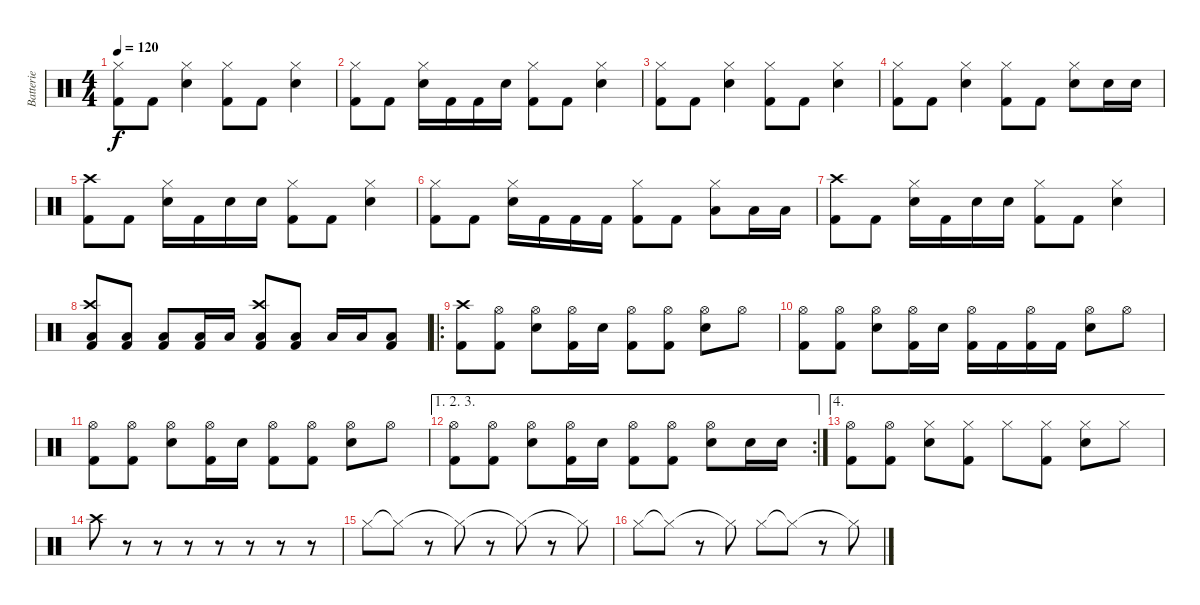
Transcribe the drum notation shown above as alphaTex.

\track ("Batterie" "Batterie") {instrument percussion}
\staff {score}
\articulation defaults
\ts (4 4)
\tempo 120
\clef neutral
\ks c
("Hi-Hat (closed)" "Kick (hit) 2").8{dy f} "Kick (hit) 2".8 ("Hi-Hat (closed)" "Snare (hit) 2").4 ("Hi-Hat (closed)" "Kick (hit) 2").8 "Kick (hit) 2".8 ("Hi-Hat (closed)" "Snare (hit) 2").4 |
("Hi-Hat (closed)" "Kick (hit) 2").8 "Kick (hit) 2".8 ("Hi-Hat (closed)" "Snare (hit) 2").16 "Kick (hit) 2".16 "Kick (hit) 2".16 "Snare (hit) 2".16 ("Hi-Hat (closed)" "Kick (hit) 2").8 "Kick (hit) 2".8 ("Hi-Hat (closed)" "Snare (hit) 2").4 |
("Hi-Hat (closed)" "Kick (hit) 2").8 "Kick (hit) 2".8 ("Hi-Hat (closed)" "Snare (hit) 2").4 ("Hi-Hat (closed)" "Kick (hit) 2").8 "Kick (hit) 2".8 ("Hi-Hat (closed)" "Snare (hit) 2").4 |
("Hi-Hat (closed)" "Kick (hit) 2").8 "Kick (hit) 2".8 ("Hi-Hat (closed)" "Snare (hit) 2").4 ("Hi-Hat (closed)" "Kick (hit) 2").8 "Kick (hit) 2".8 ("Hi-Hat (closed)" "Snare (hit) 2").8 "Snare (hit) 2".16 "Snare (hit) 2".16 |
("Crash high (hit)" "Kick (hit) 2").8 "Kick (hit) 2".8 ("Hi-Hat (closed)" "Snare (hit) 2").16 "Kick (hit) 2".16 "Snare (hit) 2".16 "Snare (hit) 2".16 ("Hi-Hat (closed)" "Kick (hit) 2").8 "Kick (hit) 2".8 ("Hi-Hat (closed)" "Snare (hit) 2").4 |
("Hi-Hat (closed)" "Kick (hit) 2").8 "Kick (hit) 2".8 ("Hi-Hat (closed)" "Snare (hit) 2").16 "Kick (hit) 2".16 "Kick (hit) 2".16 "Kick (hit) 2".16 ("Hi-Hat (closed)" "Kick (hit) 2").8 "Kick (hit) 2".8 ("Hi-Hat (closed)" "Low Tom (hit)").8 "Low Tom (hit)".16 "Low Tom (hit)".16 |
("Crash high (hit)" "Kick (hit) 2").8 "Kick (hit) 2".8 ("Hi-Hat (closed)" "Snare (hit) 2").16 "Kick (hit) 2".16 "Snare (hit) 2".16 "Snare (hit) 2".16 ("Hi-Hat (closed)" "Kick (hit) 2").8 "Kick (hit) 2".8 ("Hi-Hat (closed)" "Snare (hit) 2").4 |
("Crash high (hit)" "Low Tom (hit)" "Kick (hit) 2").8 ("Low Tom (hit)" "Kick (hit) 2").8 ("Low Tom (hit)" "Kick (hit) 2").8 ("Low Tom (hit)" "Kick (hit) 2").16 "Low Tom (hit)".16 ("Crash high (hit)" "Low Tom (hit)" "Kick (hit) 2").8 ("Low Tom (hit)" "Kick (hit) 2").8 "Low Tom (hit)".16 "Low Tom (hit)".16 ("Low Tom (hit)" "Kick (hit) 2").8 |
\ro
("Crash high (hit)" "Kick (hit) 2").8 ("Hi-Hat (open)" "Kick (hit) 2").8 ("Hi-Hat (open)" "Snare (hit) 2").8 ("Hi-Hat (open)" "Kick (hit) 2").16 "Snare (hit) 2".16 ("Hi-Hat (open)" "Kick (hit) 2").8 ("Hi-Hat (open)" "Kick (hit) 2").8 ("Hi-Hat (open)" "Snare (hit) 2").8 "Hi-Hat (open)".8 |
("Hi-Hat (open)" "Kick (hit) 2").8 ("Hi-Hat (open)" "Kick (hit) 2").8 ("Hi-Hat (open)" "Snare (hit) 2").8 ("Hi-Hat (open)" "Kick (hit) 2").16 "Snare (hit) 2".16 ("Hi-Hat (open)" "Kick (hit) 2").16 "Kick (hit) 2".16 ("Hi-Hat (open)" "Kick (hit) 2").16 "Kick (hit) 2".16 ("Hi-Hat (open)" "Snare (hit) 2").8 "Hi-Hat (open)".8 |
("Hi-Hat (open)" "Kick (hit) 2").8 ("Hi-Hat (open)" "Kick (hit) 2").8 ("Hi-Hat (open)" "Snare (hit) 2").8 ("Hi-Hat (open)" "Kick (hit) 2").16 "Snare (hit) 2".16 ("Hi-Hat (open)" "Kick (hit) 2").8 ("Hi-Hat (open)" "Kick (hit) 2").8 ("Hi-Hat (open)" "Snare (hit) 2").8 "Hi-Hat (open)".8 |
\ae (1 2 3)
\rc 2
("Hi-Hat (open)" "Kick (hit) 2").8 ("Hi-Hat (open)" "Kick (hit) 2").8 ("Hi-Hat (open)" "Snare (hit) 2").8 ("Hi-Hat (open)" "Kick (hit) 2").16 "Snare (hit) 2".16 ("Hi-Hat (open)" "Kick (hit) 2").8 ("Hi-Hat (open)" "Kick (hit) 2").8 ("Hi-Hat (open)" "Snare (hit) 2").8 "Snare (hit) 2".16 "Snare (hit) 2".16 |
\ae 4
("Hi-Hat (open)" "Kick (hit) 2").8 ("Hi-Hat (open)" "Kick (hit) 2").8 ("Hi-Hat (closed)" "Snare (hit) 2").8 ("Hi-Hat (closed)" "Kick (hit) 2").8 "Hi-Hat (closed)".8 ("Hi-Hat (closed)" "Kick (hit) 2").8 ("Hi-Hat (closed)" "Snare (hit) 2").8 "Hi-Hat (closed)".8 |
"Crash high (hit)".8 r.8 r.8 r.8 r.8 r.8 r.8 r.8 |
"Hi-Hat (closed)".8 "Hi-Hat (closed)"{t}.8 r.8 "Hi-Hat (closed)"{t}.8 r.8 "Hi-Hat (closed)"{t}.8 r.8 "Hi-Hat (closed)"{t}.8 |
"Hi-Hat (closed)".8 "Hi-Hat (closed)"{t}.8 r.8 "Hi-Hat (closed)"{t}.8 "Hi-Hat (closed)".8 "Hi-Hat (closed)"{t}.8 r.8 "Hi-Hat (closed)"{t}.8
